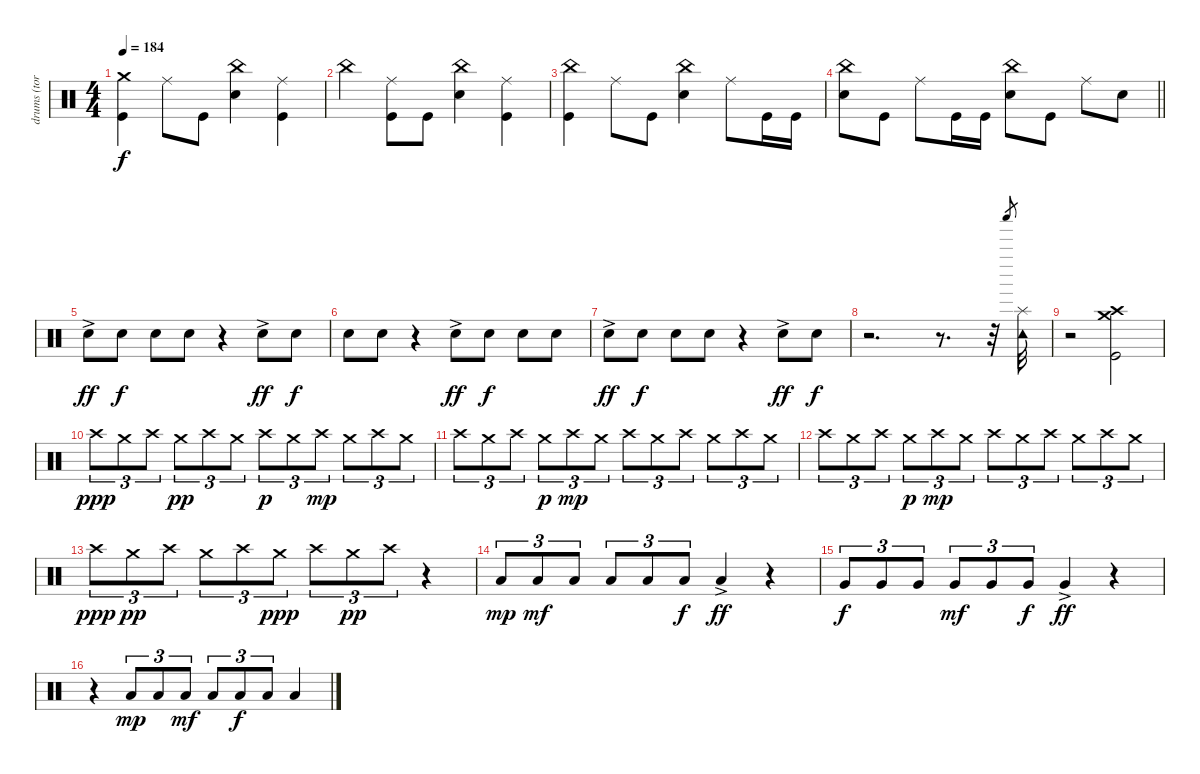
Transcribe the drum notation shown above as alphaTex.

\track ("drums (tora)" "drums (tor") {instrument percussion}
\staff {score}
\articulation defaults
\ts (4 4)
\tempo 184
\clef neutral
\ks c
("Crash medium (hit)" "Kick (hit)").4{dy f} "Ride (middle)".8 "Kick (hit)".8 ("China (hit)" "Snare (hit) 2").4 ("Ride (middle)" "Kick (hit)").4 |
"China (hit)".4 ("Ride (middle)" "Kick (hit)").8 "Kick (hit)".8 ("China (hit)" "Snare (hit) 2").4 ("Ride (middle)" "Kick (hit)").4 |
("China (hit)" "Kick (hit)").4 "Ride (middle)".8 "Kick (hit)".8 ("China (hit)" "Snare (hit) 2").4 "Ride (middle)".8 "Kick (hit)".16 "Kick (hit)".16 |
\barLineRight lightlight
("China (hit)" "Snare (hit) 2").8 "Kick (hit)".8 "Ride (middle)".8 "Kick (hit)".16 "Kick (hit)".16 ("China (hit)" "Snare (hit) 2").8 "Kick (hit)".8 "Ride (middle)".8 "Snare (hit) 2".8 |
\section ("" "")
"Snare (hit) 2"{ac}.8{dy ff} "Snare (hit) 2".8{dy f} "Snare (hit) 2".8 "Snare (hit) 2".8 r.4 "Snare (hit) 2"{ac}.8{dy ff} "Snare (hit) 2".8{dy f} |
"Snare (hit) 2".8 "Snare (hit) 2".8 r.4 "Snare (hit) 2"{ac}.8{dy ff} "Snare (hit) 2".8{dy f} "Snare (hit) 2".8 "Snare (hit) 2".8 |
"Snare (hit) 2"{ac}.8{dy ff} "Snare (hit) 2".8{dy f} "Snare (hit) 2".8 "Snare (hit) 2".8 r.4 "Snare (hit) 2"{ac}.8{dy ff} "Snare (hit) 2".8{dy f} |
r.2{d} r.8{d} r.32 "Shaker (hit)".8{gr} ("Tambourine (hit)" "Splash (hit)").32 |
r.2 ("Crash high (hit)" "Crash medium (hit)" "Kick (hit)").2 |
"Crash high (hit)".8{tu (3 2) dy ppp} "Crash medium (hit)".8{tu (3 2)} "Crash high (hit)".8{tu (3 2)} "Crash medium (hit)".8{tu (3 2) dy pp} "Crash high (hit)".8{tu (3 2)} "Crash medium (hit)".8{tu (3 2)} "Crash high (hit)".8{tu (3 2) dy p} "Crash medium (hit)".8{tu (3 2)} "Crash high (hit)".8{tu (3 2) dy mp} "Crash medium (hit)".8{tu (3 2)} "Crash high (hit)".8{tu (3 2)} "Crash medium (hit)".8{tu (3 2)} |
"Crash high (hit)".8{tu (3 2)} "Crash medium (hit)".8{tu (3 2)} "Crash high (hit)".8{tu (3 2)} "Crash medium (hit)".8{tu (3 2) dy p} "Crash high (hit)".8{tu (3 2) dy mp} "Crash medium (hit)".8{tu (3 2)} "Crash high (hit)".8{tu (3 2)} "Crash medium (hit)".8{tu (3 2)} "Crash high (hit)".8{tu (3 2)} "Crash medium (hit)".8{tu (3 2)} "Crash high (hit)".8{tu (3 2)} "Crash medium (hit)".8{tu (3 2)} |
"Crash high (hit)".8{tu (3 2)} "Crash medium (hit)".8{tu (3 2)} "Crash high (hit)".8{tu (3 2)} "Crash medium (hit)".8{tu (3 2) dy p} "Crash high (hit)".8{tu (3 2) dy mp} "Crash medium (hit)".8{tu (3 2)} "Crash high (hit)".8{tu (3 2)} "Crash medium (hit)".8{tu (3 2)} "Crash high (hit)".8{tu (3 2)} "Crash medium (hit)".8{tu (3 2)} "Crash high (hit)".8{tu (3 2)} "Crash medium (hit)".8{tu (3 2)} |
"Crash high (hit)".8{tu (3 2) dy ppp} "Crash medium (hit)".8{tu (3 2) dy pp} "Crash high (hit)".8{tu (3 2)} "Crash medium (hit)".8{tu (3 2)} "Crash high (hit)".8{tu (3 2)} "Crash medium (hit)".8{tu (3 2) dy ppp} "Crash high (hit)".8{tu (3 2)} "Crash medium (hit)".8{tu (3 2) dy pp} "Crash high (hit)".8{tu (3 2)} r.4 |
"Low Tom (hit)".8{tu (3 2) dy mp} "Low Tom (hit)".8{tu (3 2) dy mf} "Low Tom (hit)".8{tu (3 2)} "Low Tom (hit)".8{tu (3 2)} "Low Tom (hit)".8{tu (3 2)} "Low Tom (hit)".8{tu (3 2) dy f} "Low Tom (hit)"{ac}.4{dy ff} r.4 |
"Very Low Tom (hit)".8{tu (3 2) dy f} "Very Low Tom (hit)".8{tu (3 2)} "Very Low Tom (hit)".8{tu (3 2)} "Very Low Tom (hit)".8{tu (3 2) dy mf} "Very Low Tom (hit)".8{tu (3 2)} "Very Low Tom (hit)".8{tu (3 2) dy f} "Very Low Tom (hit)"{ac}.4{dy ff} r.4 |
r.4 "Low Floor Tom (hit)".8{tu (3 2) dy mp} "Low Floor Tom (hit)".8{tu (3 2)} "Low Floor Tom (hit)".8{tu (3 2) dy mf} "Low Floor Tom (hit)".8{tu (3 2)} "Low Floor Tom (hit)".8{tu (3 2) dy f} "Low Floor Tom (hit)".8{tu (3 2)} "Low Floor Tom (hit)".4
